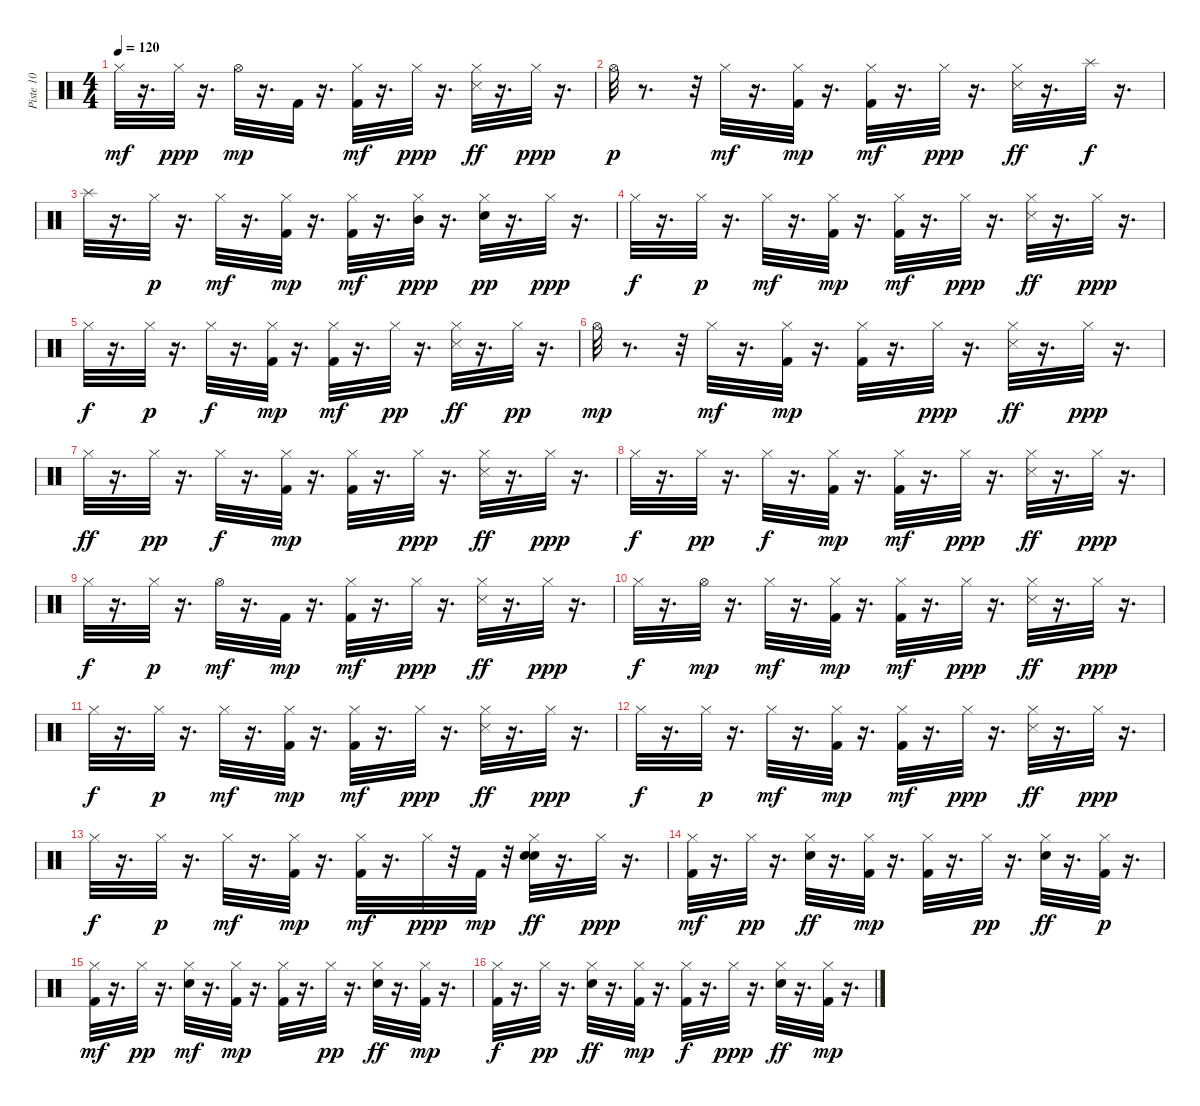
\track ("Piste 10" "Piste 10") {instrument percussion}
\staff {score}
\articulation defaults
\ts (4 4)
\tempo 120
\clef neutral
\ks c "Hi-Hat (closed)".32{dy mf}
r.16{d} "Hi-Hat (closed)".32{dy ppp} r.16{d} "Hi-Hat (open)".32{dy mp} r.16{d} "Kick (hit) 2".32 r.16{d} ("Hi-Hat (closed)" "Kick (hit) 2").32{dy mf} r.16{d} "Hi-Hat (closed)".32{dy ppp} r.16{d} ("Hi-Hat (closed)" "Snare (side stick) 3").32{dy ff} r.16{d} "Hi-Hat (closed)".32{dy ppp} r.16{d} |
"Hi-Hat (open)".32{dy p} r.8{d} r.32 "Hi-Hat (closed)".32{dy mf} r.16{d} ("Hi-Hat (closed)" "Kick (hit) 2").32{dy mp} r.16{d} ("Hi-Hat (closed)" "Kick (hit) 2").32{dy mf} r.16{d} "Hi-Hat (closed)".32{dy ppp} r.16{d} ("Hi-Hat (closed)" "Snare (side stick) 3").32{dy ff} r.16{d} "Splash (hit)".32{dy f} r.16{d} |
"Splash (hit)".32 r.16{d} "Hi-Hat (closed)".32{dy p} r.16{d} "Hi-Hat (closed)".32{dy mf} r.16{d} ("Hi-Hat (closed)" "Kick (hit) 2").32{dy mp} r.16{d} ("Hi-Hat (closed)" "Kick (hit) 2").32{dy mf} r.16{d} ("Mid Tom (hit)" "Hi-Hat (closed)").32{dy ppp} r.16{d} ("Electric Snare (hit)" "Hi-Hat (closed)").32{dy pp} r.16{d} "Hi-Hat (closed)".32{dy ppp} r.16{d} |
"Hi-Hat (closed)".32{dy f} r.16{d} "Hi-Hat (closed)".32{dy p} r.16{d} "Hi-Hat (closed)".32{dy mf} r.16{d} ("Hi-Hat (closed)" "Kick (hit) 2").32{dy mp} r.16{d} ("Hi-Hat (closed)" "Kick (hit) 2").32{dy mf} r.16{d} "Hi-Hat (closed)".32{dy ppp} r.16{d} ("Hi-Hat (closed)" "Snare (side stick) 3").32{dy ff} r.16{d} "Hi-Hat (closed)".32{dy ppp} r.16{d} |
"Hi-Hat (closed)".32{dy f} r.16{d} "Hi-Hat (closed)".32{dy p} r.16{d} "Hi-Hat (closed)".32{dy f} r.16{d} ("Hi-Hat (closed)" "Kick (hit) 2").32{dy mp} r.16{d} ("Hi-Hat (closed)" "Kick (hit) 2").32{dy mf} r.16{d} "Hi-Hat (closed)".32{dy pp} r.16{d} ("Hi-Hat (closed)" "Snare (side stick) 3").32{dy ff} r.16{d} "Hi-Hat (closed)".32{dy pp} r.16{d} |
"Hi-Hat (open)".32{dy mp} r.8{d} r.32 "Hi-Hat (closed)".32{dy mf} r.16{d} ("Hi-Hat (closed)" "Kick (hit) 2").32{dy mp} r.16{d} ("Hi-Hat (closed)" "Kick (hit) 2").32 r.16{d} "Hi-Hat (closed)".32{dy ppp} r.16{d} ("Hi-Hat (closed)" "Snare (side stick) 3").32{dy ff} r.16{d} "Hi-Hat (closed)".32{dy ppp} r.16{d} |
"Hi-Hat (closed)".32{dy ff} r.16{d} "Hi-Hat (closed)".32{dy pp} r.16{d} "Hi-Hat (closed)".32{dy f} r.16{d} ("Hi-Hat (closed)" "Kick (hit) 2").32{dy mp} r.16{d} ("Hi-Hat (closed)" "Kick (hit) 2").32 r.16{d} "Hi-Hat (closed)".32{dy ppp} r.16{d} ("Hi-Hat (closed)" "Snare (side stick) 3").32{dy ff} r.16{d} "Hi-Hat (closed)".32{dy ppp} r.16{d} |
"Hi-Hat (closed)".32{dy f} r.16{d} "Hi-Hat (closed)".32{dy pp} r.16{d} "Hi-Hat (closed)".32{dy f} r.16{d} ("Hi-Hat (closed)" "Kick (hit) 2").32{dy mp} r.16{d} ("Hi-Hat (closed)" "Kick (hit) 2").32{dy mf} r.16{d} "Hi-Hat (closed)".32{dy ppp} r.16{d} ("Hi-Hat (closed)" "Snare (side stick) 3").32{dy ff} r.16{d} "Hi-Hat (closed)".32{dy ppp} r.16{d} |
"Hi-Hat (closed)".32{dy f} r.16{d} "Hi-Hat (closed)".32{dy p} r.16{d} "Hi-Hat (open)".32{dy mf} r.16{d} "Kick (hit) 2".32{dy mp} r.16{d} ("Hi-Hat (closed)" "Kick (hit) 2").32{dy mf} r.16{d} "Hi-Hat (closed)".32{dy ppp} r.16{d} ("Hi-Hat (closed)" "Snare (side stick) 3").32{dy ff} r.16{d} "Hi-Hat (closed)".32{dy ppp} r.16{d} |
"Hi-Hat (closed)".32{dy f} r.16{d} "Hi-Hat (open)".32{dy mp} r.16{d} "Hi-Hat (closed)".32{dy mf} r.16{d} ("Hi-Hat (closed)" "Kick (hit) 2").32{dy mp} r.16{d} ("Hi-Hat (closed)" "Kick (hit) 2").32{dy mf} r.16{d} "Hi-Hat (closed)".32{dy ppp} r.16{d} ("Hi-Hat (closed)" "Snare (side stick) 3").32{dy ff} r.16{d} "Hi-Hat (closed)".32{dy ppp} r.16{d} |
"Hi-Hat (closed)".32{dy f} r.16{d} "Hi-Hat (closed)".32{dy p} r.16{d} "Hi-Hat (closed)".32{dy mf} r.16{d} ("Hi-Hat (closed)" "Kick (hit) 2").32{dy mp} r.16{d} ("Hi-Hat (closed)" "Kick (hit) 2").32{dy mf} r.16{d} "Hi-Hat (closed)".32{dy ppp} r.16{d} ("Hi-Hat (closed)" "Snare (side stick) 3").32{dy ff} r.16{d} "Hi-Hat (closed)".32{dy ppp} r.16{d} |
"Hi-Hat (closed)".32{dy f} r.16{d} "Hi-Hat (closed)".32{dy p} r.16{d} "Hi-Hat (closed)".32{dy mf} r.16{d} ("Hi-Hat (closed)" "Kick (hit) 2").32{dy mp} r.16{d} ("Hi-Hat (closed)" "Kick (hit) 2").32{dy mf} r.16{d} "Hi-Hat (closed)".32{dy ppp} r.16{d} ("Hi-Hat (closed)" "Snare (side stick) 3").32{dy ff} r.16{d} "Hi-Hat (closed)".32{dy ppp} r.16{d} |
"Hi-Hat (closed)".32{dy f} r.16{d} "Hi-Hat (closed)".32{dy p} r.16{d} "Hi-Hat (closed)".32{dy mf} r.16{d} ("Hi-Hat (closed)" "Kick (hit) 2").32{dy mp} r.16{d} ("Hi-Hat (closed)" "Kick (hit) 2").32{dy mf} r.16{d} "Hi-Hat (closed)".32{dy ppp} r.32 "Kick (hit) 2".32{dy mp} r.32 ("Electric Snare (hit)" "Hi-Hat (closed)" "Electric Snare (hit)").32{dy ff} r.16{d} "Hi-Hat (closed)".32{dy ppp} r.16{d} |
("Hi-Hat (closed)" "Kick (hit) 2").32{dy mf} r.16{d} "Hi-Hat (closed)".32{dy pp} r.16{d} ("Hi-Hat (closed)" "Electric Snare (hit)").32{dy ff} r.16{d} ("Hi-Hat (closed)" "Kick (hit) 2").32{dy mp} r.16{d} ("Hi-Hat (closed)" "Kick (hit) 2").32 r.16{d} "Hi-Hat (closed)".32{dy pp} r.16{d} ("Hi-Hat (closed)" "Electric Snare (hit)").32{dy ff} r.16{d} ("Kick (hit) 2" "Hi-Hat (closed)").32{dy p} r.16{d} |
("Hi-Hat (closed)" "Kick (hit) 2").32{dy mf} r.16{d} "Hi-Hat (closed)".32{dy pp} r.16{d} ("Electric Snare (hit)" "Hi-Hat (closed)").32{dy mf} r.16{d} ("Hi-Hat (closed)" "Kick (hit) 2").32{dy mp} r.16{d} ("Hi-Hat (closed)" "Kick (hit) 2").32 r.16{d} "Hi-Hat (closed)".32{dy pp} r.16{d} ("Hi-Hat (closed)" "Electric Snare (hit)").32{dy ff} r.16{d} ("Hi-Hat (closed)" "Kick (hit) 2").32{dy mp} r.16{d} |
("Hi-Hat (closed)" "Kick (hit) 2").32{dy f} r.16{d} "Hi-Hat (closed)".32{dy pp} r.16{d} ("Hi-Hat (closed)" "Electric Snare (hit)").32{dy ff} r.16{d} ("Hi-Hat (closed)" "Kick (hit) 2").32{dy mp} r.16{d} ("Hi-Hat (closed)" "Kick (hit) 2").32{dy f} r.16{d} "Hi-Hat (closed)".32{dy ppp} r.16{d} ("Hi-Hat (closed)" "Electric Snare (hit)").32{dy ff} r.16{d} ("Hi-Hat (closed)" "Kick (hit) 2").32{dy mp} r.16{d}
